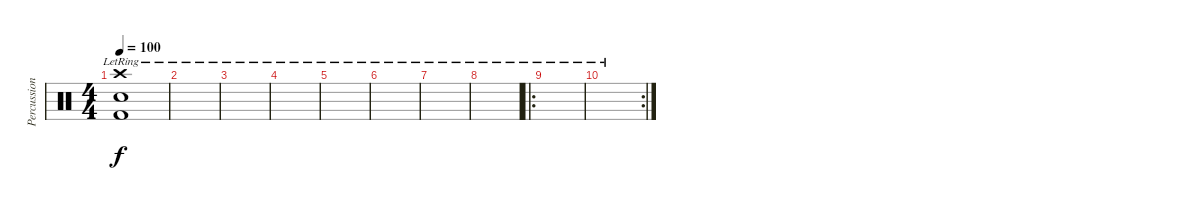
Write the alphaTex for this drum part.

\track ("Percussions" "Percussion") {instrument percussion}
\staff {score}
\articulation defaults
\ts (4 4)
\tempo 100
\clef neutral
\ks c
("Crash high (hit)"{lr} "Electric Snare (hit)" "Kick (hit) 2").1{dy f} |
|
|
|
|
|
|
|
\ro
|
\rc 2
